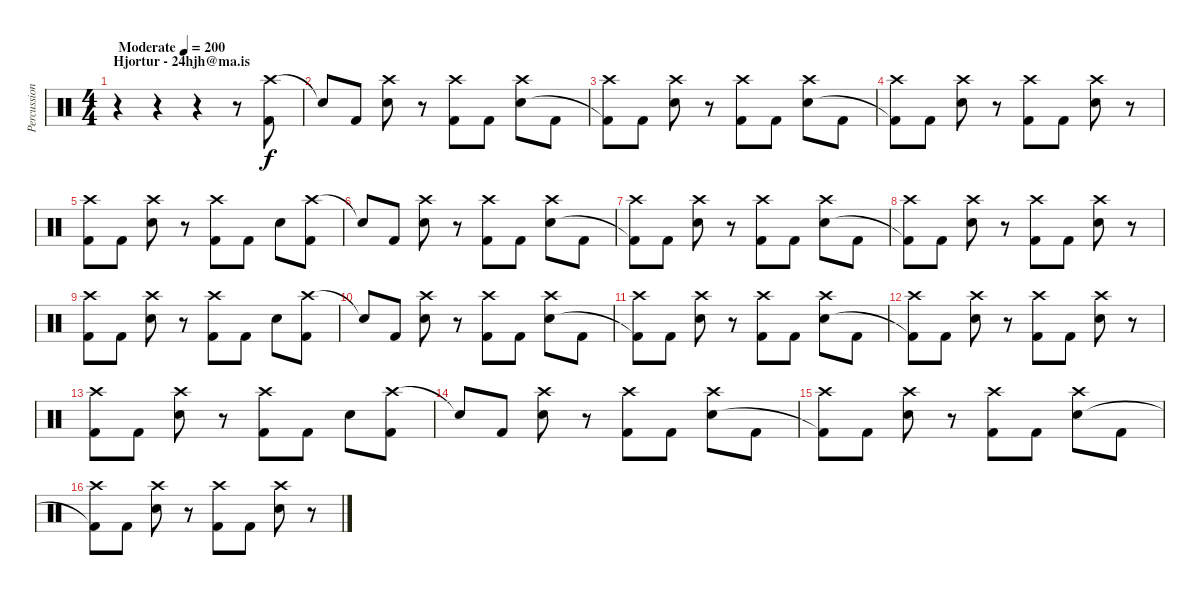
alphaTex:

\track ("Percussion" "Percussion") {instrument percussion}
\staff {score}
\articulation defaults
\ts (4 4)
\section ("" "Hjortur - 24hjh@ma.is")
\tempo (200 "Moderate")
\clef neutral
\ks c
r.4{dy f} r.4 r.4 r.8 ("Crash high (hit)" "Kick (hit) 2").8 |
"Snare (hit)"{t}.8 "Kick (hit) 2".8 ("Crash high (hit)" "Snare (hit) 2").8 r.8 ("Crash high (hit)" "Kick (hit) 2").8 "Kick (hit) 2".8 ("Crash high (hit)" "Snare (hit) 2").8 "Kick (hit) 2".8 |
("Crash high (hit)" "Kick (hit) 2"{t}).8 "Kick (hit) 2".8 ("Crash high (hit)" "Snare (hit) 2").8 r.8 ("Crash high (hit)" "Kick (hit) 2").8 "Kick (hit) 2".8 ("Crash high (hit)" "Snare (hit) 2").8 "Kick (hit) 2".8 |
("Crash high (hit)" "Kick (hit) 2"{t}).8 "Kick (hit) 2".8 ("Crash high (hit)" "Snare (hit) 2").8 r.8 ("Crash high (hit)" "Kick (hit) 2").8 "Kick (hit) 2".8 ("Crash high (hit)" "Snare (hit) 2").8 r.8 |
("Crash high (hit)" "Kick (hit) 2").8 "Kick (hit) 2".8 ("Crash high (hit)" "Snare (hit) 2").8 r.8 ("Crash high (hit)" "Kick (hit) 2").8 "Kick (hit) 2".8 "Snare (hit) 2".8 ("Crash high (hit)" "Kick (hit) 2").8 |
"Snare (hit)"{t}.8 "Kick (hit) 2".8 ("Crash high (hit)" "Snare (hit) 2").8 r.8 ("Crash high (hit)" "Kick (hit) 2").8 "Kick (hit) 2".8 ("Crash high (hit)" "Snare (hit) 2").8 "Kick (hit) 2".8 |
("Crash high (hit)" "Kick (hit) 2"{t}).8 "Kick (hit) 2".8 ("Crash high (hit)" "Snare (hit) 2").8 r.8 ("Crash high (hit)" "Kick (hit) 2").8 "Kick (hit) 2".8 ("Crash high (hit)" "Snare (hit) 2").8 "Kick (hit) 2".8 |
("Crash high (hit)" "Kick (hit) 2"{t}).8 "Kick (hit) 2".8 ("Crash high (hit)" "Snare (hit) 2").8 r.8 ("Crash high (hit)" "Kick (hit) 2").8 "Kick (hit) 2".8 ("Crash high (hit)" "Snare (hit) 2").8 r.8 |
("Crash high (hit)" "Kick (hit) 2").8 "Kick (hit) 2".8 ("Crash high (hit)" "Snare (hit) 2").8 r.8 ("Crash high (hit)" "Kick (hit) 2").8 "Kick (hit) 2".8 "Snare (hit) 2".8 ("Crash high (hit)" "Kick (hit) 2").8 |
"Snare (hit)"{t}.8 "Kick (hit) 2".8 ("Crash high (hit)" "Snare (hit) 2").8 r.8 ("Crash high (hit)" "Kick (hit) 2").8 "Kick (hit) 2".8 ("Crash high (hit)" "Snare (hit) 2").8 "Kick (hit) 2".8 |
("Crash high (hit)" "Kick (hit) 2"{t}).8 "Kick (hit) 2".8 ("Crash high (hit)" "Snare (hit) 2").8 r.8 ("Crash high (hit)" "Kick (hit) 2").8 "Kick (hit) 2".8 ("Crash high (hit)" "Snare (hit) 2").8 "Kick (hit) 2".8 |
("Crash high (hit)" "Kick (hit) 2"{t}).8 "Kick (hit) 2".8 ("Crash high (hit)" "Snare (hit) 2").8 r.8 ("Crash high (hit)" "Kick (hit) 2").8 "Kick (hit) 2".8 ("Crash high (hit)" "Snare (hit) 2").8 r.8 |
("Crash high (hit)" "Kick (hit) 2").8 "Kick (hit) 2".8 ("Crash high (hit)" "Snare (hit) 2").8 r.8 ("Crash high (hit)" "Kick (hit) 2").8 "Kick (hit) 2".8 "Snare (hit) 2".8 ("Crash high (hit)" "Kick (hit) 2").8 |
"Snare (hit)"{t}.8 "Kick (hit) 2".8 ("Crash high (hit)" "Snare (hit) 2").8 r.8 ("Crash high (hit)" "Kick (hit) 2").8 "Kick (hit) 2".8 ("Crash high (hit)" "Snare (hit) 2").8 "Kick (hit) 2".8 |
("Crash high (hit)" "Kick (hit) 2"{t}).8 "Kick (hit) 2".8 ("Crash high (hit)" "Snare (hit) 2").8 r.8 ("Crash high (hit)" "Kick (hit) 2").8 "Kick (hit) 2".8 ("Crash high (hit)" "Snare (hit) 2").8 "Kick (hit) 2".8 |
("Crash high (hit)" "Kick (hit) 2"{t}).8 "Kick (hit) 2".8 ("Crash high (hit)" "Snare (hit) 2").8 r.8 ("Crash high (hit)" "Kick (hit) 2").8 "Kick (hit) 2".8 ("Crash high (hit)" "Snare (hit) 2").8 r.8
